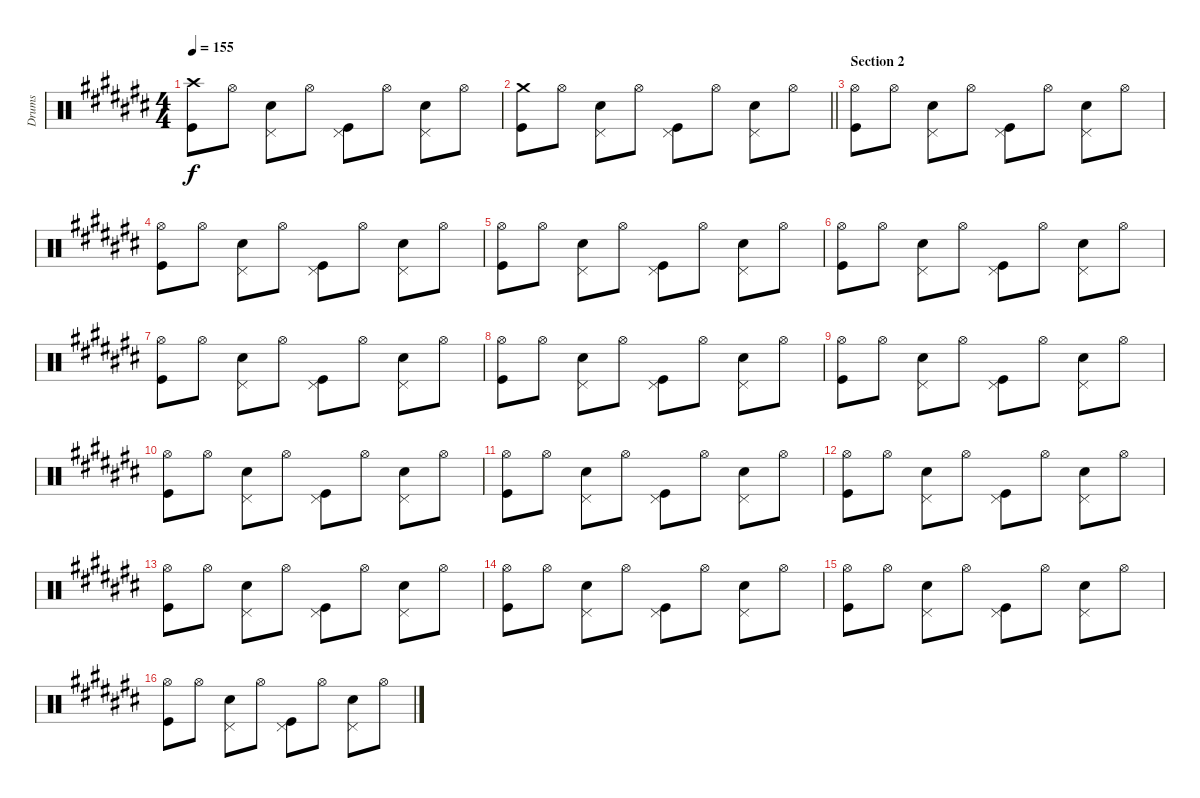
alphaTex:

\track ("Drums" "Drums") {instrument percussion}
\staff {score}
\articulation defaults
\ts (4 4)
\tempo 155
\clef neutral
\ks c#
("Crash high (hit)" "Kick (hit)").8{dy f} "Hi-Hat (open)".8 ("Pedal Hi-Hat (hit)" "Snare (hit) 2").8 "Hi-Hat (open)".8 ("Pedal Hi-Hat (hit)" "Kick (hit)").8 "Hi-Hat (open)".8 ("Pedal Hi-Hat (hit)" "Snare (hit) 2").8 "Hi-Hat (open)".8 |
\barLineRight lightlight
("Crash medium (hit)" "Kick (hit)").8 "Hi-Hat (open)".8 ("Pedal Hi-Hat (hit)" "Snare (hit) 2").8 "Hi-Hat (open)".8 ("Pedal Hi-Hat (hit)" "Kick (hit)").8 "Hi-Hat (open)".8 ("Pedal Hi-Hat (hit)" "Snare (hit) 2").8 "Hi-Hat (open)".8 |
\section ("" "Section 2")
("Hi-Hat (open)" "Kick (hit)").8 "Hi-Hat (open)".8 ("Pedal Hi-Hat (hit)" "Snare (hit) 2").8 "Hi-Hat (open)".8 ("Pedal Hi-Hat (hit)" "Kick (hit)").8 "Hi-Hat (open)".8 ("Pedal Hi-Hat (hit)" "Snare (hit) 2").8 "Hi-Hat (open)".8 |
("Hi-Hat (open)" "Kick (hit)").8 "Hi-Hat (open)".8 ("Pedal Hi-Hat (hit)" "Snare (hit) 2").8 "Hi-Hat (open)".8 ("Pedal Hi-Hat (hit)" "Kick (hit)").8 "Hi-Hat (open)".8 ("Pedal Hi-Hat (hit)" "Snare (hit) 2").8 "Hi-Hat (open)".8 |
("Hi-Hat (open)" "Kick (hit)").8 "Hi-Hat (open)".8 ("Pedal Hi-Hat (hit)" "Snare (hit) 2").8 "Hi-Hat (open)".8 ("Pedal Hi-Hat (hit)" "Kick (hit)").8 "Hi-Hat (open)".8 ("Pedal Hi-Hat (hit)" "Snare (hit) 2").8 "Hi-Hat (open)".8 |
("Hi-Hat (open)" "Kick (hit)").8 "Hi-Hat (open)".8 ("Pedal Hi-Hat (hit)" "Snare (hit) 2").8 "Hi-Hat (open)".8 ("Pedal Hi-Hat (hit)" "Kick (hit)").8 "Hi-Hat (open)".8 ("Pedal Hi-Hat (hit)" "Snare (hit) 2").8 "Hi-Hat (open)".8 |
("Hi-Hat (open)" "Kick (hit)").8 "Hi-Hat (open)".8 ("Pedal Hi-Hat (hit)" "Snare (hit) 2").8 "Hi-Hat (open)".8 ("Pedal Hi-Hat (hit)" "Kick (hit)").8 "Hi-Hat (open)".8 ("Pedal Hi-Hat (hit)" "Snare (hit) 2").8 "Hi-Hat (open)".8 |
("Hi-Hat (open)" "Kick (hit)").8 "Hi-Hat (open)".8 ("Pedal Hi-Hat (hit)" "Snare (hit) 2").8 "Hi-Hat (open)".8 ("Pedal Hi-Hat (hit)" "Kick (hit)").8 "Hi-Hat (open)".8 ("Pedal Hi-Hat (hit)" "Snare (hit) 2").8 "Hi-Hat (open)".8 |
("Hi-Hat (open)" "Kick (hit)").8 "Hi-Hat (open)".8 ("Pedal Hi-Hat (hit)" "Snare (hit) 2").8 "Hi-Hat (open)".8 ("Pedal Hi-Hat (hit)" "Kick (hit)").8 "Hi-Hat (open)".8 ("Pedal Hi-Hat (hit)" "Snare (hit) 2").8 "Hi-Hat (open)".8 |
("Hi-Hat (open)" "Kick (hit)").8 "Hi-Hat (open)".8 ("Pedal Hi-Hat (hit)" "Snare (hit) 2").8 "Hi-Hat (open)".8 ("Pedal Hi-Hat (hit)" "Kick (hit)").8 "Hi-Hat (open)".8 ("Pedal Hi-Hat (hit)" "Snare (hit) 2").8 "Hi-Hat (open)".8 |
("Hi-Hat (open)" "Kick (hit)").8 "Hi-Hat (open)".8 ("Pedal Hi-Hat (hit)" "Snare (hit) 2").8 "Hi-Hat (open)".8 ("Pedal Hi-Hat (hit)" "Kick (hit)").8 "Hi-Hat (open)".8 ("Pedal Hi-Hat (hit)" "Snare (hit) 2").8 "Hi-Hat (open)".8 |
("Hi-Hat (open)" "Kick (hit)").8 "Hi-Hat (open)".8 ("Pedal Hi-Hat (hit)" "Snare (hit) 2").8 "Hi-Hat (open)".8 ("Pedal Hi-Hat (hit)" "Kick (hit)").8 "Hi-Hat (open)".8 ("Pedal Hi-Hat (hit)" "Snare (hit) 2").8 "Hi-Hat (open)".8 |
("Hi-Hat (open)" "Kick (hit)").8 "Hi-Hat (open)".8 ("Pedal Hi-Hat (hit)" "Snare (hit) 2").8 "Hi-Hat (open)".8 ("Pedal Hi-Hat (hit)" "Kick (hit)").8 "Hi-Hat (open)".8 ("Pedal Hi-Hat (hit)" "Snare (hit) 2").8 "Hi-Hat (open)".8 |
("Hi-Hat (open)" "Kick (hit)").8 "Hi-Hat (open)".8 ("Pedal Hi-Hat (hit)" "Snare (hit) 2").8 "Hi-Hat (open)".8 ("Pedal Hi-Hat (hit)" "Kick (hit)").8 "Hi-Hat (open)".8 ("Pedal Hi-Hat (hit)" "Snare (hit) 2").8 "Hi-Hat (open)".8 |
("Hi-Hat (open)" "Kick (hit)").8 "Hi-Hat (open)".8 ("Pedal Hi-Hat (hit)" "Snare (hit) 2").8 "Hi-Hat (open)".8 ("Pedal Hi-Hat (hit)" "Kick (hit)").8 "Hi-Hat (open)".8 ("Pedal Hi-Hat (hit)" "Snare (hit) 2").8 "Hi-Hat (open)".8 |
("Hi-Hat (open)" "Kick (hit)").8 "Hi-Hat (open)".8 ("Pedal Hi-Hat (hit)" "Snare (hit) 2").8 "Hi-Hat (open)".8 ("Pedal Hi-Hat (hit)" "Kick (hit)").8 "Hi-Hat (open)".8 ("Pedal Hi-Hat (hit)" "Snare (hit) 2").8 "Hi-Hat (open)".8
